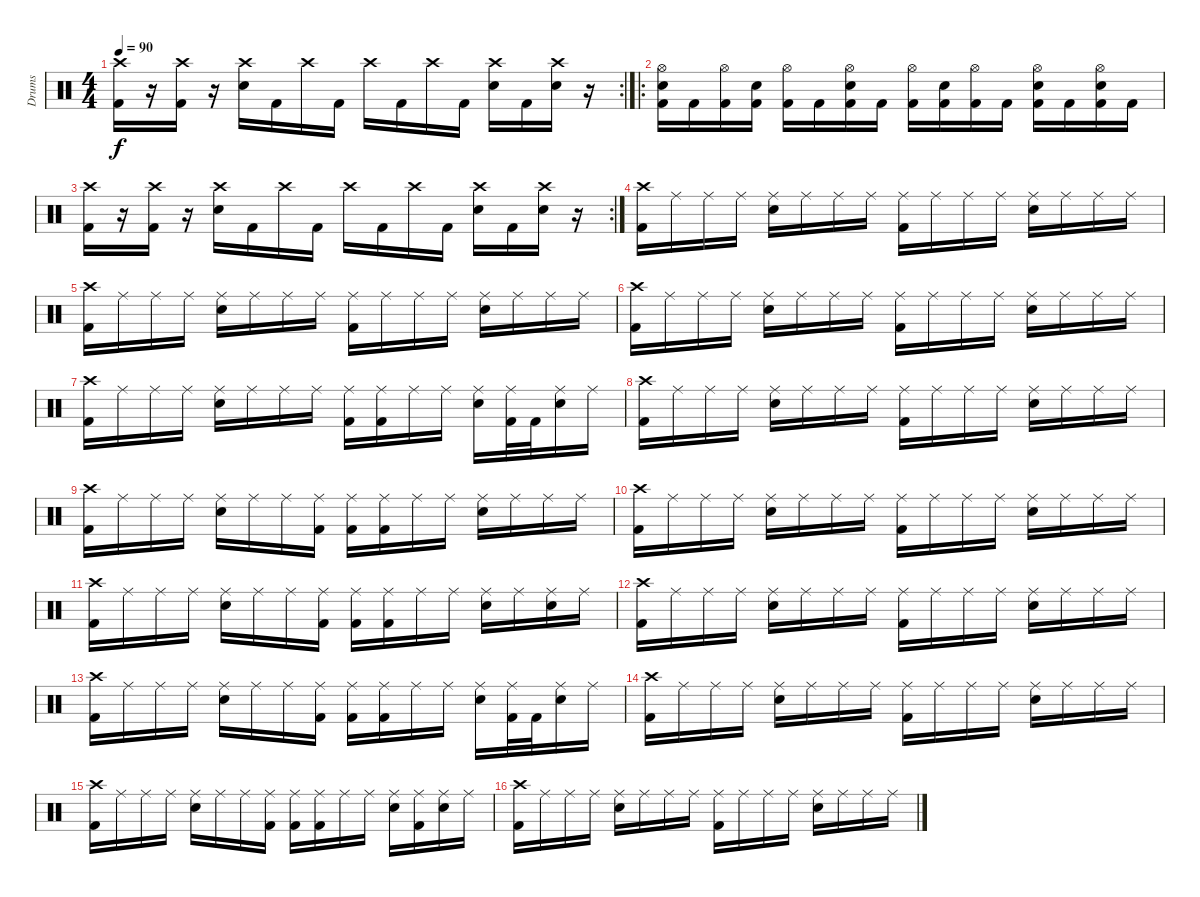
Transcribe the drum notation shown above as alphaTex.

\track ("Drums" "Drums") {instrument percussion}
\staff {score}
\articulation defaults
\rc 2
\ts (4 4)
\tempo 90
\clef neutral
\ks c
("Kick (hit) 2" "Crash high (hit)").16{dy f} r.16 ("Kick (hit) 2" "Crash high (hit)").16 r.16 ("Snare (hit) 2" "Crash high (hit)").16 "Kick (hit) 2".16 "Crash high (hit)".16 "Kick (hit) 2".16 "Crash high (hit)".16 "Kick (hit) 2".16 "Crash high (hit)".16 "Kick (hit) 2".16 ("Snare (hit) 2" "Crash high (hit)").16 "Kick (hit) 2".16 ("Snare (hit) 2" "Crash high (hit)").16 r.16 |
\ro
("Kick (hit) 2" "Snare (hit) 2" "Hi-Hat (open)").16 "Kick (hit) 2".16 ("Kick (hit) 2" "Hi-Hat (open)").16 ("Kick (hit) 2" "Snare (hit) 2").16 ("Kick (hit) 2" "Hi-Hat (open)").16 "Kick (hit) 2".16 ("Kick (hit) 2" "Snare (hit) 2" "Hi-Hat (open)").16 "Kick (hit) 2".16 ("Kick (hit) 2" "Hi-Hat (open)").16 ("Kick (hit) 2" "Snare (hit) 2").16 ("Kick (hit) 2" "Hi-Hat (open)").16 "Kick (hit) 2".16 ("Kick (hit) 2" "Snare (hit) 2" "Hi-Hat (open)").16 "Kick (hit) 2".16 ("Kick (hit) 2" "Snare (hit) 2" "Hi-Hat (open)").16 "Kick (hit) 2".16 |
\rc 2
("Kick (hit) 2" "Crash high (hit)").16 r.16 ("Kick (hit) 2" "Crash high (hit)").16 r.16 ("Snare (hit) 2" "Crash high (hit)").16 "Kick (hit) 2".16 "Crash high (hit)".16 "Kick (hit) 2".16 "Crash high (hit)".16 "Kick (hit) 2".16 "Crash high (hit)".16 "Kick (hit) 2".16 ("Snare (hit) 2" "Crash high (hit)").16 "Kick (hit) 2".16 ("Snare (hit) 2" "Crash high (hit)").16 r.16 |
("Kick (hit) 2" "Crash high (hit)").16 "Ride (middle)".16 "Ride (middle)".16 "Ride (middle)".16 ("Snare (hit) 2" "Ride (middle)").16 "Ride (middle)".16 "Ride (middle)".16 "Ride (middle)".16 ("Kick (hit) 2" "Ride (middle)").16 "Ride (middle)".16 "Ride (middle)".16 "Ride (middle)".16 ("Snare (hit) 2" "Ride (middle)").16 "Ride (middle)".16 "Ride (middle)".16 "Ride (middle)".16 |
("Kick (hit) 2" "Crash high (hit)").16 "Ride (middle)".16 "Ride (middle)".16 "Ride (middle)".16 ("Snare (hit) 2" "Ride (middle)").16 "Ride (middle)".16 "Ride (middle)".16 "Ride (middle)".16 ("Kick (hit) 2" "Ride (middle)").16 "Ride (middle)".16 "Ride (middle)".16 "Ride (middle)".16 ("Snare (hit) 2" "Ride (middle)").16 "Ride (middle)".16 "Ride (middle)".16 "Ride (middle)".16 |
("Kick (hit) 2" "Crash high (hit)").16 "Ride (middle)".16 "Ride (middle)".16 "Ride (middle)".16 ("Snare (hit) 2" "Ride (middle)").16 "Ride (middle)".16 "Ride (middle)".16 "Ride (middle)".16 ("Kick (hit) 2" "Ride (middle)").16 "Ride (middle)".16 "Ride (middle)".16 "Ride (middle)".16 ("Snare (hit) 2" "Ride (middle)").16 "Ride (middle)".16 "Ride (middle)".16 "Ride (middle)".16 |
("Kick (hit) 2" "Crash high (hit)").16 "Ride (middle)".16 "Ride (middle)".16 "Ride (middle)".16 ("Snare (hit) 2" "Ride (middle)").16 "Ride (middle)".16 "Ride (middle)".16 "Ride (middle)".16 ("Kick (hit) 2" "Ride (middle)").16 ("Kick (hit) 2" "Ride (middle)").16 "Ride (middle)".16 "Ride (middle)".16 ("Snare (hit) 2" "Ride (middle)").16 ("Kick (hit) 2" "Ride (middle)").32 "Kick (hit) 2".32 ("Snare (hit) 2" "Ride (middle)").16 "Ride (middle)".16 |
("Kick (hit) 2" "Crash high (hit)").16 "Ride (middle)".16 "Ride (middle)".16 "Ride (middle)".16 ("Snare (hit) 2" "Ride (middle)").16 "Ride (middle)".16 "Ride (middle)".16 "Ride (middle)".16 ("Kick (hit) 2" "Ride (middle)").16 "Ride (middle)".16 "Ride (middle)".16 "Ride (middle)".16 ("Snare (hit) 2" "Ride (middle)").16 "Ride (middle)".16 "Ride (middle)".16 "Ride (middle)".16 |
("Kick (hit) 2" "Crash high (hit)").16 "Ride (middle)".16 "Ride (middle)".16 "Ride (middle)".16 ("Snare (hit) 2" "Ride (middle)").16 "Ride (middle)".16 "Ride (middle)".16 ("Kick (hit) 2" "Ride (middle)").16 ("Kick (hit) 2" "Ride (middle)").16 ("Kick (hit) 2" "Ride (middle)").16 "Ride (middle)".16 "Ride (middle)".16 ("Snare (hit) 2" "Ride (middle)").16 "Ride (middle)".16 "Ride (middle)".16 "Ride (middle)".16 |
("Kick (hit) 2" "Crash high (hit)").16 "Ride (middle)".16 "Ride (middle)".16 "Ride (middle)".16 ("Snare (hit) 2" "Ride (middle)").16 "Ride (middle)".16 "Ride (middle)".16 "Ride (middle)".16 ("Kick (hit) 2" "Ride (middle)").16 "Ride (middle)".16 "Ride (middle)".16 "Ride (middle)".16 ("Snare (hit) 2" "Ride (middle)").16 "Ride (middle)".16 "Ride (middle)".16 "Ride (middle)".16 |
("Kick (hit) 2" "Crash high (hit)").16 "Ride (middle)".16 "Ride (middle)".16 "Ride (middle)".16 ("Snare (hit) 2" "Ride (middle)").16 "Ride (middle)".16 "Ride (middle)".16 ("Kick (hit) 2" "Ride (middle)").16 ("Kick (hit) 2" "Ride (middle)").16 ("Kick (hit) 2" "Ride (middle)").16 "Ride (middle)".16 "Ride (middle)".16 ("Snare (hit) 2" "Ride (middle)").16 "Ride (middle)".16 ("Snare (hit) 2" "Ride (middle)").16 "Ride (middle)".16 |
("Kick (hit) 2" "Crash high (hit)").16 "Ride (middle)".16 "Ride (middle)".16 "Ride (middle)".16 ("Snare (hit) 2" "Ride (middle)").16 "Ride (middle)".16 "Ride (middle)".16 "Ride (middle)".16 ("Kick (hit) 2" "Ride (middle)").16 "Ride (middle)".16 "Ride (middle)".16 "Ride (middle)".16 ("Snare (hit) 2" "Ride (middle)").16 "Ride (middle)".16 "Ride (middle)".16 "Ride (middle)".16 |
("Kick (hit) 2" "Crash high (hit)").16 "Ride (middle)".16 "Ride (middle)".16 "Ride (middle)".16 ("Snare (hit) 2" "Ride (middle)").16 "Ride (middle)".16 "Ride (middle)".16 ("Kick (hit) 2" "Ride (middle)").16 ("Kick (hit) 2" "Ride (middle)").16 ("Kick (hit) 2" "Ride (middle)").16 "Ride (middle)".16 "Ride (middle)".16 ("Snare (hit) 2" "Ride (middle)").16 ("Kick (hit) 2" "Ride (middle)").32 "Kick (hit) 2".32 ("Snare (hit) 2" "Ride (middle)").16 "Ride (middle)".16 |
("Kick (hit) 2" "Crash high (hit)").16 "Ride (middle)".16 "Ride (middle)".16 "Ride (middle)".16 ("Snare (hit) 2" "Ride (middle)").16 "Ride (middle)".16 "Ride (middle)".16 "Ride (middle)".16 ("Kick (hit) 2" "Ride (middle)").16 "Ride (middle)".16 "Ride (middle)".16 "Ride (middle)".16 ("Snare (hit) 2" "Ride (middle)").16 "Ride (middle)".16 "Ride (middle)".16 "Ride (middle)".16 |
("Kick (hit) 2" "Crash high (hit)").16 "Ride (middle)".16 "Ride (middle)".16 "Ride (middle)".16 ("Snare (hit) 2" "Ride (middle)").16 "Ride (middle)".16 "Ride (middle)".16 ("Kick (hit) 2" "Ride (middle)").16 ("Kick (hit) 2" "Ride (middle)").16 ("Kick (hit) 2" "Ride (middle)").16 "Ride (middle)".16 "Ride (middle)".16 ("Snare (hit) 2" "Ride (middle)").16 ("Kick (hit) 2" "Ride (middle)").16 ("Snare (hit) 2" "Ride (middle)").16 "Ride (middle)".16 |
("Kick (hit) 2" "Crash high (hit)").16 "Ride (middle)".16 "Ride (middle)".16 "Ride (middle)".16 ("Snare (hit) 2" "Ride (middle)").16 "Ride (middle)".16 "Ride (middle)".16 "Ride (middle)".16 ("Kick (hit) 2" "Ride (middle)").16 "Ride (middle)".16 "Ride (middle)".16 "Ride (middle)".16 ("Snare (hit) 2" "Ride (middle)").16 "Ride (middle)".16 "Ride (middle)".16 "Ride (middle)".16
